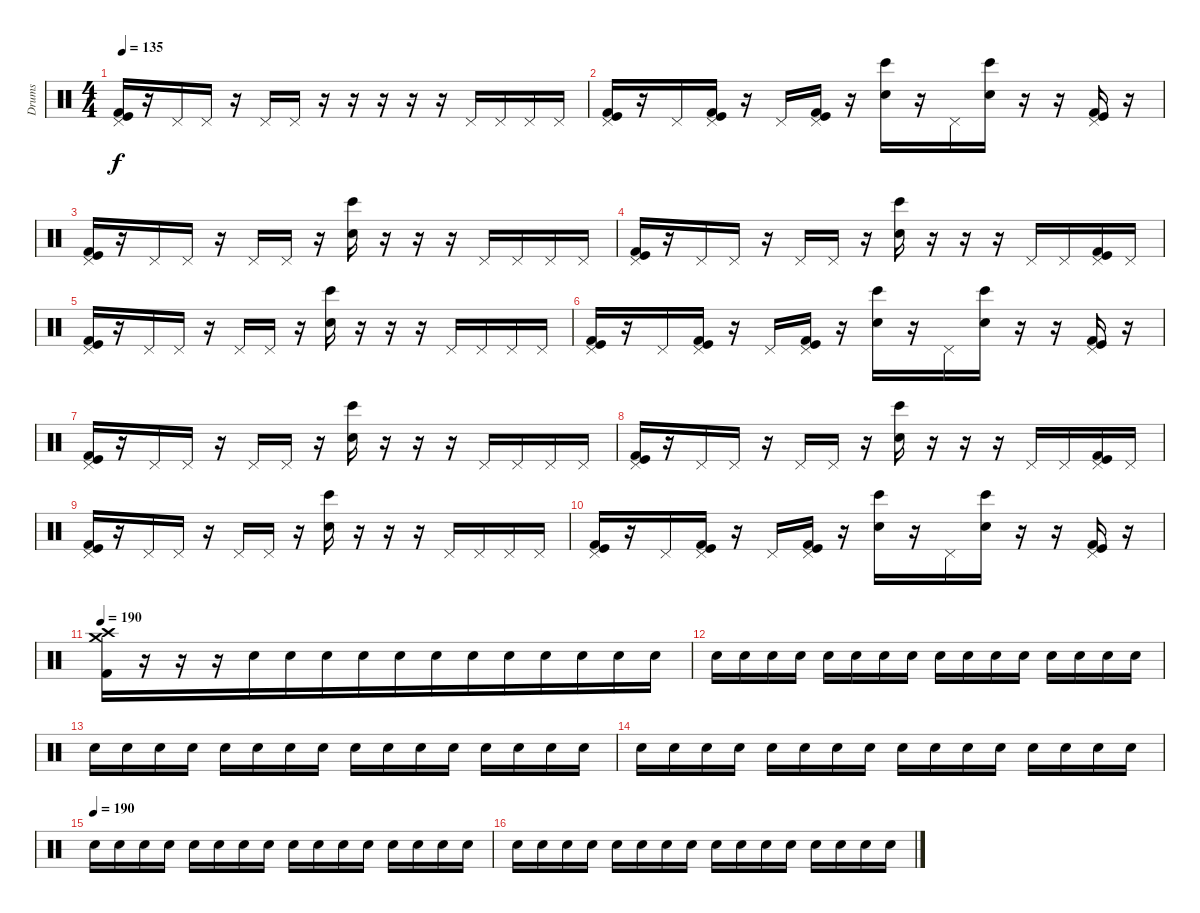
\track ("Drums" "Drums") {instrument percussion}
\staff {score}
\articulation defaults
\ts (4 4)
\tempo 135
\clef neutral
\ks c
("Pedal Hi-Hat (hit)" "Kick (hit) 2" "Kick (hit)").16{dy f} r.16 "Pedal Hi-Hat (hit)".16 "Pedal Hi-Hat (hit)".16 r.16 "Pedal Hi-Hat (hit)".16 "Pedal Hi-Hat (hit)".16 r.16 r.16 r.16 r.16 r.16 "Pedal Hi-Hat (hit)".16 "Pedal Hi-Hat (hit)".16 "Pedal Hi-Hat (hit)".16 "Pedal Hi-Hat (hit)".16 |
("Pedal Hi-Hat (hit)" "Kick (hit) 2" "Kick (hit)").16 r.16 "Pedal Hi-Hat (hit)".16 ("Pedal Hi-Hat (hit)" "Kick (hit) 2" "Kick (hit)").16 r.16 "Pedal Hi-Hat (hit)".16 ("Pedal Hi-Hat (hit)" "Kick (hit) 2" "Kick (hit)").16 r.16 ("Bongo High (hit)" "Hand Clap (hit)").16 r.16 "Pedal Hi-Hat (hit)".16 ("Bongo High (hit)" "Hand Clap (hit)").16 r.16 r.16 ("Pedal Hi-Hat (hit)" "Kick (hit) 2" "Kick (hit)").16 r.16 |
("Pedal Hi-Hat (hit)" "Kick (hit) 2" "Kick (hit)").16 r.16 "Pedal Hi-Hat (hit)".16 "Pedal Hi-Hat (hit)".16 r.16 "Pedal Hi-Hat (hit)".16 "Pedal Hi-Hat (hit)".16 r.16 ("Bongo High (hit)" "Hand Clap (hit)").16 r.16 r.16 r.16 "Pedal Hi-Hat (hit)".16 "Pedal Hi-Hat (hit)".16 "Pedal Hi-Hat (hit)".16 "Pedal Hi-Hat (hit)".16 |
("Pedal Hi-Hat (hit)" "Kick (hit) 2" "Kick (hit)").16 r.16 "Pedal Hi-Hat (hit)".16 "Pedal Hi-Hat (hit)".16 r.16 "Pedal Hi-Hat (hit)".16 "Pedal Hi-Hat (hit)".16 r.16 ("Bongo High (hit)" "Hand Clap (hit)").16 r.16 r.16 r.16 "Pedal Hi-Hat (hit)".16 "Pedal Hi-Hat (hit)".16 ("Pedal Hi-Hat (hit)" "Kick (hit) 2" "Kick (hit)").16 "Pedal Hi-Hat (hit)".16 |
("Pedal Hi-Hat (hit)" "Kick (hit) 2" "Kick (hit)").16 r.16 "Pedal Hi-Hat (hit)".16 "Pedal Hi-Hat (hit)".16 r.16 "Pedal Hi-Hat (hit)".16 "Pedal Hi-Hat (hit)".16 r.16 ("Bongo High (hit)" "Hand Clap (hit)").16 r.16 r.16 r.16 "Pedal Hi-Hat (hit)".16 "Pedal Hi-Hat (hit)".16 "Pedal Hi-Hat (hit)".16 "Pedal Hi-Hat (hit)".16 |
("Pedal Hi-Hat (hit)" "Kick (hit) 2" "Kick (hit)").16 r.16 "Pedal Hi-Hat (hit)".16 ("Pedal Hi-Hat (hit)" "Kick (hit) 2" "Kick (hit)").16 r.16 "Pedal Hi-Hat (hit)".16 ("Pedal Hi-Hat (hit)" "Kick (hit) 2" "Kick (hit)").16 r.16 ("Bongo High (hit)" "Hand Clap (hit)").16 r.16 "Pedal Hi-Hat (hit)".16 ("Bongo High (hit)" "Hand Clap (hit)").16 r.16 r.16 ("Pedal Hi-Hat (hit)" "Kick (hit) 2" "Kick (hit)").16 r.16 |
("Pedal Hi-Hat (hit)" "Kick (hit) 2" "Kick (hit)").16 r.16 "Pedal Hi-Hat (hit)".16 "Pedal Hi-Hat (hit)".16 r.16 "Pedal Hi-Hat (hit)".16 "Pedal Hi-Hat (hit)".16 r.16 ("Bongo High (hit)" "Hand Clap (hit)").16 r.16 r.16 r.16 "Pedal Hi-Hat (hit)".16 "Pedal Hi-Hat (hit)".16 "Pedal Hi-Hat (hit)".16 "Pedal Hi-Hat (hit)".16 |
("Pedal Hi-Hat (hit)" "Kick (hit) 2" "Kick (hit)").16 r.16 "Pedal Hi-Hat (hit)".16 "Pedal Hi-Hat (hit)".16 r.16 "Pedal Hi-Hat (hit)".16 "Pedal Hi-Hat (hit)".16 r.16 ("Bongo High (hit)" "Hand Clap (hit)").16 r.16 r.16 r.16 "Pedal Hi-Hat (hit)".16 "Pedal Hi-Hat (hit)".16 ("Pedal Hi-Hat (hit)" "Kick (hit) 2" "Kick (hit)").16 "Pedal Hi-Hat (hit)".16 |
("Pedal Hi-Hat (hit)" "Kick (hit) 2" "Kick (hit)").16 r.16 "Pedal Hi-Hat (hit)".16 "Pedal Hi-Hat (hit)".16 r.16 "Pedal Hi-Hat (hit)".16 "Pedal Hi-Hat (hit)".16 r.16 ("Bongo High (hit)" "Hand Clap (hit)").16 r.16 r.16 r.16 "Pedal Hi-Hat (hit)".16 "Pedal Hi-Hat (hit)".16 "Pedal Hi-Hat (hit)".16 "Pedal Hi-Hat (hit)".16 |
("Pedal Hi-Hat (hit)" "Kick (hit) 2" "Kick (hit)").16 r.16 "Pedal Hi-Hat (hit)".16 ("Pedal Hi-Hat (hit)" "Kick (hit) 2" "Kick (hit)").16 r.16 "Pedal Hi-Hat (hit)".16 ("Pedal Hi-Hat (hit)" "Kick (hit) 2" "Kick (hit)").16 r.16 ("Bongo High (hit)" "Hand Clap (hit)").16 r.16 "Pedal Hi-Hat (hit)".16 ("Bongo High (hit)" "Hand Clap (hit)").16 r.16 r.16 ("Pedal Hi-Hat (hit)" "Kick (hit) 2" "Kick (hit)").16 r.16 |
\tempo 190
("Crash medium (hit)" "Crash high (hit)" "Kick (hit) 2").16{beam merge} r.16{beam merge} r.16{beam merge} r.16{beam merge} "Electric Snare (hit)".16{beam merge} "Electric Snare (hit)".16{beam merge} "Electric Snare (hit)".16{beam merge} "Electric Snare (hit)".16{beam merge} "Electric Snare (hit)".16{beam merge} "Electric Snare (hit)".16{beam merge} "Electric Snare (hit)".16{beam merge} "Electric Snare (hit)".16{beam merge} "Electric Snare (hit)".16{beam merge} "Electric Snare (hit)".16{beam merge} "Electric Snare (hit)".16{beam merge} "Electric Snare (hit)".16 |
"Electric Snare (hit)".16 "Electric Snare (hit)".16 "Electric Snare (hit)".16 "Electric Snare (hit)".16 "Electric Snare (hit)".16 "Electric Snare (hit)".16 "Electric Snare (hit)".16 "Electric Snare (hit)".16 "Electric Snare (hit)".16 "Electric Snare (hit)".16 "Electric Snare (hit)".16 "Electric Snare (hit)".16 "Electric Snare (hit)".16 "Electric Snare (hit)".16 "Electric Snare (hit)".16 "Electric Snare (hit)".16 |
"Electric Snare (hit)".16 "Electric Snare (hit)".16 "Electric Snare (hit)".16 "Electric Snare (hit)".16 "Electric Snare (hit)".16 "Electric Snare (hit)".16 "Electric Snare (hit)".16 "Electric Snare (hit)".16 "Electric Snare (hit)".16 "Electric Snare (hit)".16 "Electric Snare (hit)".16 "Electric Snare (hit)".16 "Electric Snare (hit)".16 "Electric Snare (hit)".16 "Electric Snare (hit)".16 "Electric Snare (hit)".16 |
"Electric Snare (hit)".16 "Electric Snare (hit)".16 "Electric Snare (hit)".16 "Electric Snare (hit)".16 "Electric Snare (hit)".16 "Electric Snare (hit)".16 "Electric Snare (hit)".16 "Electric Snare (hit)".16 "Electric Snare (hit)".16 "Electric Snare (hit)".16 "Electric Snare (hit)".16 "Electric Snare (hit)".16 "Electric Snare (hit)".16 "Electric Snare (hit)".16 "Electric Snare (hit)".16 "Electric Snare (hit)".16 |
\tempo (190)
"Electric Snare (hit)".16 "Electric Snare (hit)".16 "Electric Snare (hit)".16 "Electric Snare (hit)".16 "Electric Snare (hit)".16 "Electric Snare (hit)".16 "Electric Snare (hit)".16 "Electric Snare (hit)".16 "Electric Snare (hit)".16 "Electric Snare (hit)".16 "Electric Snare (hit)".16 "Electric Snare (hit)".16 "Electric Snare (hit)".16 "Electric Snare (hit)".16 "Electric Snare (hit)".16 "Electric Snare (hit)".16 |
"Electric Snare (hit)".16 "Electric Snare (hit)".16 "Electric Snare (hit)".16 "Electric Snare (hit)".16 "Electric Snare (hit)".16 "Electric Snare (hit)".16 "Electric Snare (hit)".16 "Electric Snare (hit)".16 "Electric Snare (hit)".16 "Electric Snare (hit)".16 "Electric Snare (hit)".16 "Electric Snare (hit)".16 "Electric Snare (hit)".16 "Electric Snare (hit)".16 "Electric Snare (hit)".16 "Electric Snare (hit)".16
